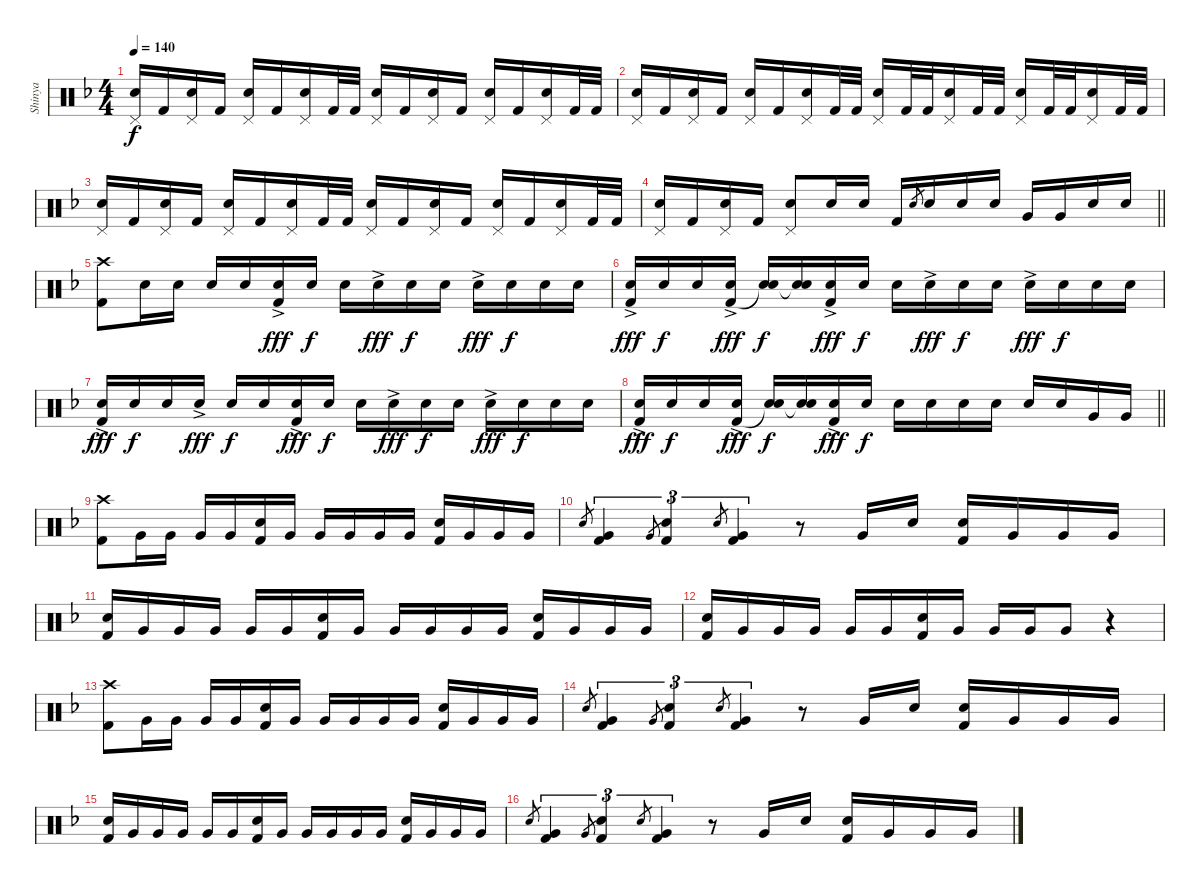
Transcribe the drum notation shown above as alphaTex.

\track ("Shinya" "Shinya") {instrument percussion}
\staff {score}
\articulation defaults
\ts (4 4)
\tempo 140
\clef neutral
\ks dminor
("Pedal Hi-Hat (hit)" "Electric Snare (hit)").16{dy f} "Kick (hit) 2".16 ("Pedal Hi-Hat (hit)" "Electric Snare (hit)").16 "Kick (hit) 2".16 ("Pedal Hi-Hat (hit)" "Electric Snare (hit)").16 "Kick (hit) 2".16 ("Pedal Hi-Hat (hit)" "Electric Snare (hit)").16 "Kick (hit) 2".32 "Kick (hit) 2".32 ("Pedal Hi-Hat (hit)" "Electric Snare (hit)").16 "Kick (hit) 2".16 ("Pedal Hi-Hat (hit)" "Electric Snare (hit)").16 "Kick (hit) 2".16 ("Pedal Hi-Hat (hit)" "Electric Snare (hit)").16 "Kick (hit) 2".16 ("Pedal Hi-Hat (hit)" "Electric Snare (hit)").16 "Kick (hit) 2".32 "Kick (hit) 2".32 |
("Pedal Hi-Hat (hit)" "Electric Snare (hit)").16 "Kick (hit) 2".16 ("Pedal Hi-Hat (hit)" "Electric Snare (hit)").16 "Kick (hit) 2".16 ("Pedal Hi-Hat (hit)" "Electric Snare (hit)").16 "Kick (hit) 2".16 ("Pedal Hi-Hat (hit)" "Electric Snare (hit)").16 "Kick (hit) 2".32 "Kick (hit) 2".32 ("Pedal Hi-Hat (hit)" "Electric Snare (hit)").16 "Kick (hit) 2".32 "Kick (hit) 2".32 ("Pedal Hi-Hat (hit)" "Electric Snare (hit)").16 "Kick (hit) 2".32 "Kick (hit) 2".32 ("Pedal Hi-Hat (hit)" "Electric Snare (hit)").16 "Kick (hit) 2".32 "Kick (hit) 2".32 ("Pedal Hi-Hat (hit)" "Electric Snare (hit)").16 "Kick (hit) 2".32 "Kick (hit) 2".32 |
("Pedal Hi-Hat (hit)" "Electric Snare (hit)").16 "Kick (hit) 2".16 ("Pedal Hi-Hat (hit)" "Electric Snare (hit)").16 "Kick (hit) 2".16 ("Pedal Hi-Hat (hit)" "Electric Snare (hit)").16 "Kick (hit) 2".16 ("Pedal Hi-Hat (hit)" "Electric Snare (hit)").16 "Kick (hit) 2".32 "Kick (hit) 2".32 ("Pedal Hi-Hat (hit)" "Electric Snare (hit)").16 "Kick (hit) 2".16 ("Pedal Hi-Hat (hit)" "Electric Snare (hit)").16 "Kick (hit) 2".16 ("Pedal Hi-Hat (hit)" "Electric Snare (hit)").16 "Kick (hit) 2".16 ("Pedal Hi-Hat (hit)" "Electric Snare (hit)").16 "Kick (hit) 2".32 "Kick (hit) 2".32 |
\barLineRight lightlight
("Pedal Hi-Hat (hit)" "Electric Snare (hit)").16 "Kick (hit) 2".16 ("Pedal Hi-Hat (hit)" "Electric Snare (hit)").16 "Kick (hit) 2".16 ("Pedal Hi-Hat (hit)" "Electric Snare (hit)").8 "Electric Snare (hit)".16 "Electric Snare (hit)".16 "Kick (hit) 2".16 "Electric Snare (hit)".8{gr} "Electric Snare (hit)".16 "Electric Snare (hit)".16 "Electric Snare (hit)".16 "Very Low Tom (hit)".16 "Very Low Tom (hit)".16 "Electric Snare (hit)".16 "Electric Snare (hit)".16 |
("Crash high (hit)" "Kick (hit) 2").8 "Electric Snare (hit)".16 "Electric Snare (hit)".16 "Electric Snare (hit)".16 "Electric Snare (hit)".16 ("Electric Snare (hit)"{ac} "Kick (hit) 2").16{dy fff} "Electric Snare (hit)".16{dy f} "Electric Snare (hit)".16 "Electric Snare (hit)"{ac}.16{dy fff} "Electric Snare (hit)".16{dy f} "Electric Snare (hit)".16 "Electric Snare (hit)"{ac}.16{dy fff} "Electric Snare (hit)".16{dy f} "Electric Snare (hit)".16 "Electric Snare (hit)".16 |
("Electric Snare (hit)"{ac} "Kick (hit) 2").16{dy fff} "Electric Snare (hit)".16{dy f} "Electric Snare (hit)".16 ("Electric Snare (hit)"{ac} "Kick (hit) 2").16{dy fff} ("Electric Snare (hit)" "Snare (hit)"{t}).16{dy f} ("Electric Snare (hit)" "Snare (hit)"{t}).16 ("Electric Snare (hit)"{ac} "Kick (hit) 2").16{dy fff} "Electric Snare (hit)".16{dy f} "Electric Snare (hit)".16 "Electric Snare (hit)"{ac}.16{dy fff} "Electric Snare (hit)".16{dy f} "Electric Snare (hit)".16 "Electric Snare (hit)"{ac}.16{dy fff} "Electric Snare (hit)".16{dy f} "Electric Snare (hit)".16 "Electric Snare (hit)".16 |
("Electric Snare (hit)"{ac} "Kick (hit) 2").16{dy fff} "Electric Snare (hit)".16{dy f} "Electric Snare (hit)".16 "Electric Snare (hit)"{ac}.16{dy fff} "Electric Snare (hit)".16{dy f} "Electric Snare (hit)".16 ("Electric Snare (hit)"{ac} "Kick (hit) 2").16{dy fff} "Electric Snare (hit)".16{dy f} "Electric Snare (hit)".16 "Electric Snare (hit)"{ac}.16{dy fff} "Electric Snare (hit)".16{dy f} "Electric Snare (hit)".16 "Electric Snare (hit)"{ac}.16{dy fff} "Electric Snare (hit)".16{dy f} "Electric Snare (hit)".16 "Electric Snare (hit)".16 |
\barLineRight lightlight
("Electric Snare (hit)"{ac} "Kick (hit) 2").16{dy fff} "Electric Snare (hit)".16{dy f} "Electric Snare (hit)".16 ("Electric Snare (hit)"{ac} "Kick (hit) 2").16{dy fff} ("Electric Snare (hit)" "Snare (hit)"{t}).16{dy f} ("Electric Snare (hit)" "Snare (hit)"{t}).16 ("Electric Snare (hit)"{ac} "Kick (hit) 2").16{dy fff} "Electric Snare (hit)".16{dy f} "Electric Snare (hit)".16 "Electric Snare (hit)".16 "Electric Snare (hit)".16 "Electric Snare (hit)".16 "Electric Snare (hit)".16 "Electric Snare (hit)".16 "Very Low Tom (hit)".16 "Very Low Tom (hit)".16 |
("Crash high (hit)" "Kick (hit) 2").8 "Very Low Tom (hit)".16 "Very Low Tom (hit)".16 "Very Low Tom (hit)".16 "Very Low Tom (hit)".16 ("Electric Snare (hit)" "Kick (hit) 2").16 "Very Low Tom (hit)".16 "Very Low Tom (hit)".16 "Very Low Tom (hit)".16 "Very Low Tom (hit)".16 "Very Low Tom (hit)".16 ("Electric Snare (hit)" "Kick (hit) 2").16 "Very Low Tom (hit)".16 "Very Low Tom (hit)".16 "Very Low Tom (hit)".16 |
"Electric Snare (hit)".8{gr} ("Very Low Tom (hit)" "Kick (hit) 2").4{tu (3 2)} "Very Low Tom (hit)".8{gr} ("Electric Snare (hit)" "Kick (hit) 2").4{tu (3 2)} "Electric Snare (hit)".8{gr} ("Very Low Tom (hit)" "Kick (hit) 2").4{tu (3 2)} r.8 "Very Low Tom (hit)".16 "Electric Snare (hit)".16 ("Electric Snare (hit)" "Kick (hit) 2").16 "Very Low Tom (hit)".16 "Very Low Tom (hit)".16 "Very Low Tom (hit)".16 |
("Electric Snare (hit)" "Kick (hit) 2").16 "Very Low Tom (hit)".16 "Very Low Tom (hit)".16 "Very Low Tom (hit)".16 "Very Low Tom (hit)".16 "Very Low Tom (hit)".16 ("Electric Snare (hit)" "Kick (hit) 2").16 "Very Low Tom (hit)".16 "Very Low Tom (hit)".16 "Very Low Tom (hit)".16 "Very Low Tom (hit)".16 "Very Low Tom (hit)".16 ("Electric Snare (hit)" "Kick (hit) 2").16 "Very Low Tom (hit)".16 "Very Low Tom (hit)".16 "Very Low Tom (hit)".16 |
("Electric Snare (hit)" "Kick (hit) 2").16 "Very Low Tom (hit)".16 "Very Low Tom (hit)".16 "Very Low Tom (hit)".16 "Very Low Tom (hit)".16 "Very Low Tom (hit)".16 ("Electric Snare (hit)" "Kick (hit) 2").16 "Very Low Tom (hit)".16 "Very Low Tom (hit)".16 "Very Low Tom (hit)".16 "Very Low Tom (hit)".8 r.4 |
("Crash high (hit)" "Kick (hit) 2").8 "Very Low Tom (hit)".16 "Very Low Tom (hit)".16 "Very Low Tom (hit)".16 "Very Low Tom (hit)".16 ("Electric Snare (hit)" "Kick (hit) 2").16 "Very Low Tom (hit)".16 "Very Low Tom (hit)".16 "Very Low Tom (hit)".16 "Very Low Tom (hit)".16 "Very Low Tom (hit)".16 ("Electric Snare (hit)" "Kick (hit) 2").16 "Very Low Tom (hit)".16 "Very Low Tom (hit)".16 "Very Low Tom (hit)".16 |
"Electric Snare (hit)".8{gr} ("Very Low Tom (hit)" "Kick (hit) 2").4{tu (3 2)} "Very Low Tom (hit)".8{gr} ("Electric Snare (hit)" "Kick (hit) 2").4{tu (3 2)} "Electric Snare (hit)".8{gr} ("Very Low Tom (hit)" "Kick (hit) 2").4{tu (3 2)} r.8 "Very Low Tom (hit)".16 "Electric Snare (hit)".16 ("Electric Snare (hit)" "Kick (hit) 2").16 "Very Low Tom (hit)".16 "Very Low Tom (hit)".16 "Very Low Tom (hit)".16 |
("Electric Snare (hit)" "Kick (hit) 2").16 "Very Low Tom (hit)".16 "Very Low Tom (hit)".16 "Very Low Tom (hit)".16 "Very Low Tom (hit)".16 "Very Low Tom (hit)".16 ("Electric Snare (hit)" "Kick (hit) 2").16 "Very Low Tom (hit)".16 "Very Low Tom (hit)".16 "Very Low Tom (hit)".16 "Very Low Tom (hit)".16 "Very Low Tom (hit)".16 ("Electric Snare (hit)" "Kick (hit) 2").16 "Very Low Tom (hit)".16 "Very Low Tom (hit)".16 "Very Low Tom (hit)".16 |
"Electric Snare (hit)".8{gr} ("Very Low Tom (hit)" "Kick (hit) 2").4{tu (3 2)} "Very Low Tom (hit)".8{gr} ("Electric Snare (hit)" "Kick (hit) 2").4{tu (3 2)} "Electric Snare (hit)".8{gr} ("Very Low Tom (hit)" "Kick (hit) 2").4{tu (3 2)} r.8 "Very Low Tom (hit)".16 "Electric Snare (hit)".16 ("Electric Snare (hit)" "Kick (hit) 2").16 "Very Low Tom (hit)".16 "Very Low Tom (hit)".16 "Very Low Tom (hit)".16
